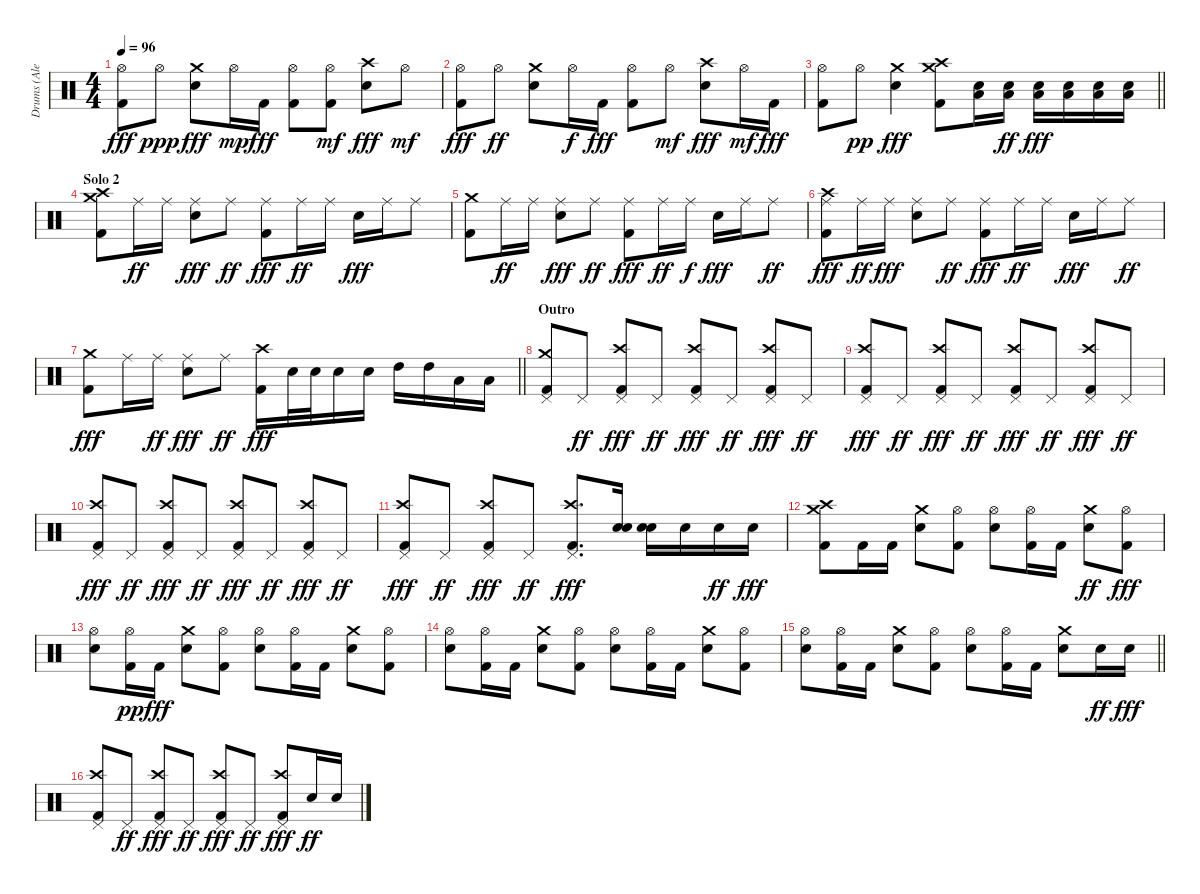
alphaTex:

\track ("Drums (Alex Van Halen)" "Drums (Ale") {instrument percussion}
\staff {score}
\articulation defaults
\ts (4 4)
\tempo 96
\clef neutral
\ks c
("Kick (hit) 2" "Hi-Hat (open)").8{dy fff} "Hi-Hat (open)".8{dy ppp} ("Snare (hit) 2" "Crash medium (hit)").8{dy fff} "Hi-Hat (open)".16{dy mp} "Kick (hit) 2".16{dy fff} ("Hi-Hat (open)" "Kick (hit) 2").8 ("Kick (hit) 2" "Hi-Hat (open)").8{dy mf} ("Crash high (hit)" "Snare (hit) 2").8{dy fff} "Hi-Hat (open)".8{dy mf} |
("Hi-Hat (open)" "Kick (hit) 2").8{dy fff} "Hi-Hat (open)".8{dy ff} ("Snare (hit) 2" "Crash medium (hit)").8 "Hi-Hat (open)".16{dy f} "Kick (hit) 2".16{dy fff} ("Kick (hit) 2" "Hi-Hat (open)").8 "Hi-Hat (open)".8{dy mf} ("Crash high (hit)" "Snare (hit) 2").8{dy fff} "Hi-Hat (open)".16{dy mf} "Kick (hit) 2".16{dy fff} |
\barLineRight lightlight
("Hi-Hat (open)" "Kick (hit) 2").8 "Hi-Hat (open)".8{dy pp} ("Snare (hit) 2" "Crash medium (hit)").4{dy fff} ("Crash medium (hit)" "Crash high (hit)" "Kick (hit) 2").8 ("Snare (hit) 2" "Low Tom (hit)").16 ("Low Tom (hit)" "Snare (hit) 2").16{dy ff} ("Low Tom (hit)" "Snare (hit) 2").16{dy fff} ("Snare (hit) 2" "Low Tom (hit)").16 ("Snare (hit) 2" "Low Tom (hit)").16 ("Snare (hit) 2" "Low Tom (hit)").16 |
\section ("" "Solo 2")
("Kick (hit) 2" "Crash medium (hit)" "Crash high (hit)").8 "Ride (middle)".16{dy ff} "Ride (middle)".16 ("Ride (middle)" "Snare (hit) 2").8{dy fff} "Ride (middle)".8{dy ff} ("Ride (middle)" "Kick (hit) 2").8{dy fff} "Ride (middle)".16{dy ff} "Ride (middle)".16 "Snare (hit) 2".16{dy fff} "Ride (middle)".16 "Ride (middle)".8 |
("Kick (hit) 2" "Crash medium (hit)").8 "Ride (middle)".16{dy ff} "Ride (middle)".16 ("Snare (hit) 2" "Ride (middle)").8{dy fff} "Ride (middle)".8{dy ff} ("Kick (hit) 2" "Ride (middle)").8{dy fff} "Ride (middle)".16{dy ff} "Ride (middle)".16{dy f} "Snare (hit) 2".16{dy fff} "Ride (middle)".16 "Ride (middle)".8{dy ff} |
("Kick (hit) 2" "Crash high (hit)" "Ride (middle)").8{dy fff} "Ride (middle)".16{dy ff} "Ride (middle)".16{dy fff} ("Snare (hit) 2" "Ride (middle)").8 "Ride (middle)".8{dy ff} ("Kick (hit) 2" "Ride (middle)").8{dy fff} "Ride (middle)".16{dy ff} "Ride (middle)".16 "Snare (hit) 2".16{dy fff} "Ride (middle)".16 "Ride (middle)".8{dy ff} |
\barLineRight lightlight
("Kick (hit) 2" "Crash medium (hit)").8{dy fff} "Ride (middle)".16 "Ride (middle)".16{dy ff} ("Ride (middle)" "Snare (hit) 2").8{dy fff} "Ride (middle)".8{dy ff} ("Crash high (hit)" "Kick (hit) 2").16{dy fff} "Snare (hit) 2".32 "Snare (hit) 2".32 "Snare (hit) 2".16 "Snare (hit) 2".16 "High Tom (hit)".16 "High Tom (hit)".16 "Low Tom (hit)".16 "Low Tom (hit)".16 |
\section ("" "Outro")
("Pedal Hi-Hat (hit)" "Kick (hit) 2" "Crash medium (hit)").8 "Pedal Hi-Hat (hit)".8{dy ff} ("Pedal Hi-Hat (hit)" "Kick (hit) 2" "Crash high (hit)").8{dy fff} "Pedal Hi-Hat (hit)".8{dy ff} ("Pedal Hi-Hat (hit)" "Crash high (hit)" "Kick (hit) 2").8{dy fff} "Pedal Hi-Hat (hit)".8{dy ff} ("Pedal Hi-Hat (hit)" "Kick (hit) 2" "Crash high (hit)").8{dy fff} "Pedal Hi-Hat (hit)".8{dy ff} |
("Pedal Hi-Hat (hit)" "Crash high (hit)" "Kick (hit) 2").8{dy fff} "Pedal Hi-Hat (hit)".8{dy ff} ("Pedal Hi-Hat (hit)" "Crash high (hit)" "Kick (hit) 2").8{dy fff} "Pedal Hi-Hat (hit)".8{dy ff} ("Pedal Hi-Hat (hit)" "Kick (hit) 2" "Crash high (hit)").8{dy fff} "Pedal Hi-Hat (hit)".8{dy ff} ("Pedal Hi-Hat (hit)" "Kick (hit) 2" "Crash high (hit)").8{dy fff} "Pedal Hi-Hat (hit)".8{dy ff} |
("Pedal Hi-Hat (hit)" "Crash high (hit)" "Kick (hit) 2").8{dy fff} "Pedal Hi-Hat (hit)".8{dy ff} ("Pedal Hi-Hat (hit)" "Crash high (hit)" "Kick (hit) 2").8{dy fff} "Pedal Hi-Hat (hit)".8{dy ff} ("Pedal Hi-Hat (hit)" "Kick (hit) 2" "Crash high (hit)").8{dy fff} "Pedal Hi-Hat (hit)".8{dy ff} ("Pedal Hi-Hat (hit)" "Kick (hit) 2" "Crash high (hit)").8{dy fff} "Pedal Hi-Hat (hit)".8{dy ff} |
("Pedal Hi-Hat (hit)" "Kick (hit) 2" "Crash high (hit)").8{dy fff} "Pedal Hi-Hat (hit)".8{dy ff} ("Pedal Hi-Hat (hit)" "Crash high (hit)" "Kick (hit) 2").8{dy fff} "Pedal Hi-Hat (hit)".8{dy ff} ("Pedal Hi-Hat (hit)" "Crash high (hit)" "Kick (hit) 2").8{d dy fff} ("Snare (hit) 2" "Snare (hit) 2").16 ("Snare (hit) 2" "Snare (hit) 2").16 "Snare (hit) 2".16 "Snare (hit) 2".16{dy ff} "Snare (hit) 2".16{dy fff} |
("Crash medium (hit)" "Kick (hit) 2" "Crash high (hit)").8 "Kick (hit) 2".16 "Kick (hit) 2".16 ("Crash medium (hit)" "Snare (hit) 2").8 ("Hi-Hat (open)" "Kick (hit) 2").8 ("Snare (hit) 2" "Hi-Hat (open)").8 ("Kick (hit) 2" "Hi-Hat (open)").16 "Kick (hit) 2".16 ("Snare (hit) 2" "Crash medium (hit)").8{dy ff} ("Hi-Hat (open)" "Kick (hit) 2").8{dy fff} |
("Snare (hit) 2" "Hi-Hat (open)").8 ("Kick (hit) 2" "Hi-Hat (open)").16{dy pp} "Kick (hit) 2".16{dy fff} ("Snare (hit) 2" "Crash medium (hit)").8 ("Hi-Hat (open)" "Kick (hit) 2").8 ("Snare (hit) 2" "Hi-Hat (open)").8 ("Kick (hit) 2" "Hi-Hat (open)").16 "Kick (hit) 2".16 ("Snare (hit) 2" "Crash medium (hit)").8 ("Hi-Hat (open)" "Kick (hit) 2").8 |
("Snare (hit) 2" "Hi-Hat (open)").8 ("Kick (hit) 2" "Hi-Hat (open)").16 "Kick (hit) 2".16 ("Snare (hit) 2" "Crash medium (hit)").8 ("Hi-Hat (open)" "Kick (hit) 2").8 ("Snare (hit) 2" "Hi-Hat (open)").8 ("Hi-Hat (open)" "Kick (hit) 2").16 "Kick (hit) 2".16 ("Crash medium (hit)" "Snare (hit) 2").8 ("Hi-Hat (open)" "Kick (hit) 2").8 |
\barLineRight lightlight
("Snare (hit) 2" "Hi-Hat (open)").8 ("Hi-Hat (open)" "Kick (hit) 2").16 "Kick (hit) 2".16 ("Crash medium (hit)" "Snare (hit) 2").8 ("Hi-Hat (open)" "Kick (hit) 2").8 ("Snare (hit) 2" "Hi-Hat (open)").8 ("Hi-Hat (open)" "Kick (hit) 2").16 "Kick (hit) 2".16 ("Crash medium (hit)" "Snare (hit) 2").8 "Snare (hit) 2".16{dy ff} "Snare (hit) 2".16{dy fff} |
("Pedal Hi-Hat (hit)" "Crash high (hit)" "Kick (hit) 2").8 "Pedal Hi-Hat (hit)".8{dy ff} ("Pedal Hi-Hat (hit)" "Crash high (hit)" "Kick (hit) 2").8{dy fff} "Pedal Hi-Hat (hit)".8{dy ff} ("Pedal Hi-Hat (hit)" "Kick (hit) 2" "Crash high (hit)").8{dy fff} "Pedal Hi-Hat (hit)".8{dy ff} ("Pedal Hi-Hat (hit)" "Kick (hit) 2" "Crash high (hit)").8{dy fff} "Snare (hit) 2".16{dy ff} "Snare (hit) 2".16
